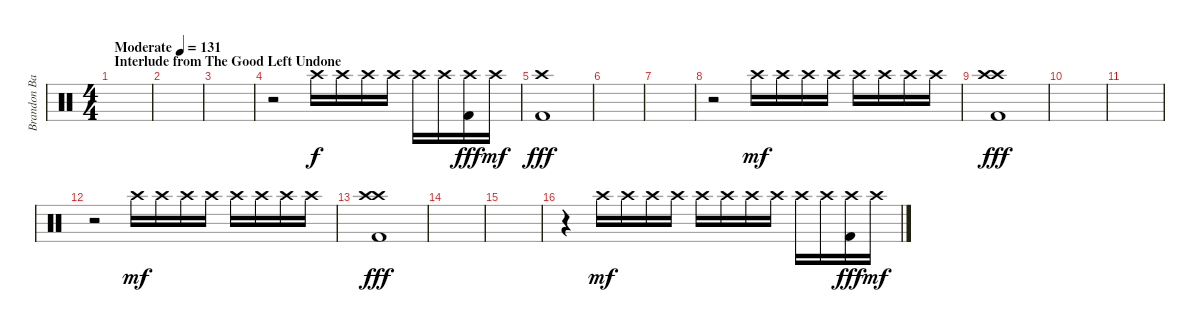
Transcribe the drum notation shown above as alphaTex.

\track ("Brandon Barnes - Drums" "Brandon Ba") {instrument percussion}
\staff {score}
\articulation defaults
\ts (4 4)
\section ("" "Interlude from The Good Left Undone")
\tempo (131 "Moderate")
\clef neutral
\ks c
|
|
|
r.2 "Crash high (hit)".16{volume 8} "Crash high (hit)".16 "Crash high (hit)".16 "Crash high (hit)".16 "Crash high (hit)".16 "Crash high (hit)".16 ("Crash high (hit)" "Kick (hit) 2").16{dy fff} "Crash high (hit)".16{dy mf} |
("Kick (hit) 2" "Crash high (hit)").1{dy fff volume 0} |
|
|
r.2 "Crash high (hit)".16{dy mf volume 8} "Crash high (hit)".16 "Crash high (hit)".16 "Crash high (hit)".16 "Crash high (hit)".16 "Crash high (hit)".16 "Crash high (hit)".16 "Crash high (hit)".16 |
("Crash high (hit)" "Crash high (hit)" "Kick (hit) 2").1{dy fff volume 9} |
|
|
r.2{volume 0} "Crash high (hit)".16{dy mf volume 8} "Crash high (hit)".16 "Crash high (hit)".16 "Crash high (hit)".16 "Crash high (hit)".16 "Crash high (hit)".16 "Crash high (hit)".16 "Crash high (hit)".16 |
("Crash high (hit)" "Crash high (hit)" "Kick (hit) 2").1{dy fff volume 9} |
|
|
r.4{volume 0} "Crash high (hit)".16{dy mf volume 8} "Crash high (hit)".16 "Crash high (hit)".16 "Crash high (hit)".16 "Crash high (hit)".16 "Crash high (hit)".16 "Crash high (hit)".16 "Crash high (hit)".16 "Crash high (hit)".16 "Crash high (hit)".16 ("Crash high (hit)" "Kick (hit) 2").16{dy fff} "Crash high (hit)".16{dy mf}
